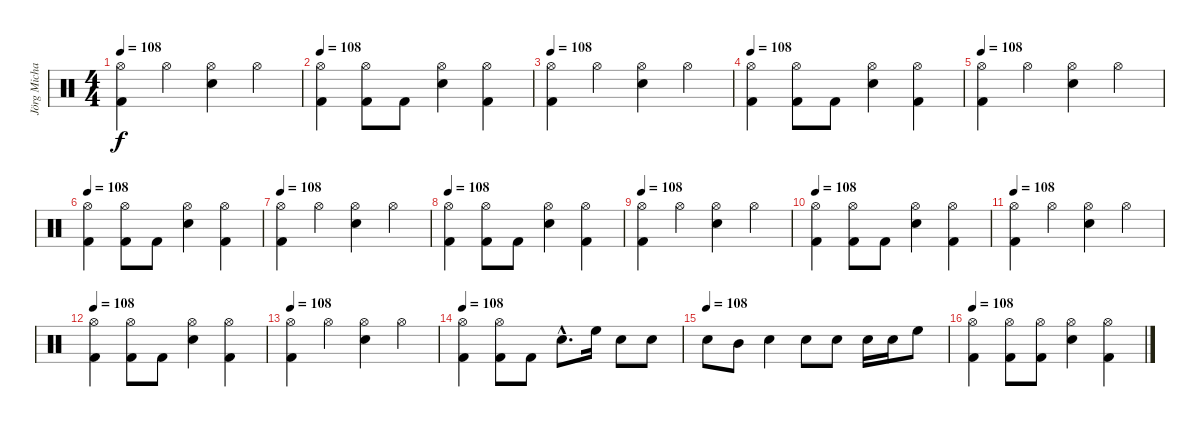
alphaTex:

\track ("Jörg Michael (Drums)" "Jörg Micha") {instrument percussion}
\staff {score}
\articulation defaults
\ts (4 4)
\tempo 108
\clef neutral
\ks c
("Hi-Hat (open)" "Kick (hit) 2").4{dy f} "Hi-Hat (open)".4 ("Hi-Hat (open)" "Snare (hit) 2").4 "Hi-Hat (open)".4 |
\tempo 108
("Kick (hit) 2" "Hi-Hat (open)").4 ("Kick (hit) 2" "Hi-Hat (open)").8 "Kick (hit) 2".8 ("Snare (hit) 2" "Hi-Hat (open)").4 ("Kick (hit) 2" "Hi-Hat (open)").4 |
\tempo 108
("Hi-Hat (open)" "Kick (hit) 2").4 "Hi-Hat (open)".4 ("Hi-Hat (open)" "Snare (hit) 2").4 "Hi-Hat (open)".4 |
\tempo 108
("Kick (hit) 2" "Hi-Hat (open)").4 ("Kick (hit) 2" "Hi-Hat (open)").8 "Kick (hit) 2".8 ("Snare (hit) 2" "Hi-Hat (open)").4 ("Kick (hit) 2" "Hi-Hat (open)").4 |
\tempo 108
("Hi-Hat (open)" "Kick (hit) 2").4 "Hi-Hat (open)".4 ("Hi-Hat (open)" "Snare (hit) 2").4 "Hi-Hat (open)".4 |
\tempo 108
("Kick (hit) 2" "Hi-Hat (open)").4 ("Kick (hit) 2" "Hi-Hat (open)").8 "Kick (hit) 2".8 ("Snare (hit) 2" "Hi-Hat (open)").4 ("Kick (hit) 2" "Hi-Hat (open)").4 |
\tempo 108
("Hi-Hat (open)" "Kick (hit) 2").4 "Hi-Hat (open)".4 ("Hi-Hat (open)" "Snare (hit) 2").4 "Hi-Hat (open)".4 |
\tempo 108
("Kick (hit) 2" "Hi-Hat (open)").4 ("Kick (hit) 2" "Hi-Hat (open)").8 "Kick (hit) 2".8 ("Snare (hit) 2" "Hi-Hat (open)").4 ("Kick (hit) 2" "Hi-Hat (open)").4 |
\tempo 108
("Hi-Hat (open)" "Kick (hit) 2").4 "Hi-Hat (open)".4 ("Hi-Hat (open)" "Snare (hit) 2").4 "Hi-Hat (open)".4 |
\tempo 108
("Kick (hit) 2" "Hi-Hat (open)").4 ("Kick (hit) 2" "Hi-Hat (open)").8 "Kick (hit) 2".8 ("Snare (hit) 2" "Hi-Hat (open)").4 ("Kick (hit) 2" "Hi-Hat (open)").4 |
\tempo 108
("Hi-Hat (open)" "Kick (hit) 2").4 "Hi-Hat (open)".4 ("Hi-Hat (open)" "Snare (hit) 2").4 "Hi-Hat (open)".4 |
\tempo 108
("Kick (hit) 2" "Hi-Hat (open)").4 ("Kick (hit) 2" "Hi-Hat (open)").8 "Kick (hit) 2".8 ("Snare (hit) 2" "Hi-Hat (open)").4 ("Kick (hit) 2" "Hi-Hat (open)").4 |
\tempo 108
("Hi-Hat (open)" "Kick (hit) 2").4 "Hi-Hat (open)".4 ("Hi-Hat (open)" "Snare (hit) 2").4 "Hi-Hat (open)".4 |
\tempo 108
("Kick (hit) 2" "Hi-Hat (open)").4 ("Kick (hit) 2" "Hi-Hat (open)").8 "Kick (hit) 2".8 "Snare (hit) 2"{hac}.8{d} "High Floor Tom (hit)".16 "Snare (hit) 2".8 "Snare (hit) 2".8 |
\tempo (108)
"Snare (hit) 2".8 "Mid Tom (hit)".8 "Snare (hit) 2".4 "Snare (hit) 2".8 "Snare (hit) 2".8 "Snare (hit) 2".16 "Snare (hit) 2".16 "High Floor Tom (hit)".8 |
\tempo 108
("Kick (hit) 2" "Hi-Hat (open)").4 ("Kick (hit) 2" "Hi-Hat (open)").8 ("Kick (hit) 2" "Hi-Hat (open)").8 ("Snare (hit) 2" "Hi-Hat (open)").4 ("Kick (hit) 2" "Hi-Hat (open)").4
